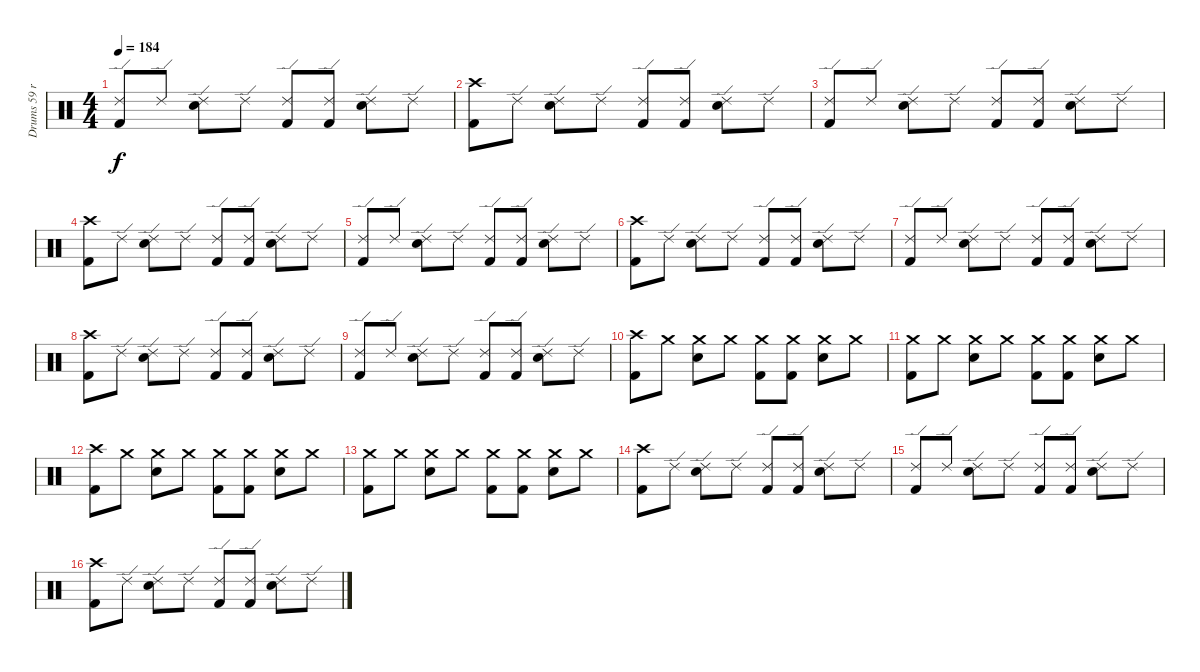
\track ("Drums 59 ride" "Drums 59 r") {mute instrument percussion}
\staff {score}
\articulation defaults
\ts (4 4)
\tempo 184
\clef neutral
\ks c
("Ride (edge) 2" "Kick (hit) 2").8{dy f} "Ride (edge) 2".8 ("Ride (edge) 2" "Snare (hit) 2").8 "Ride (edge) 2".8 ("Ride (edge) 2" "Kick (hit) 2").8 ("Ride (edge) 2" "Kick (hit) 2").8 ("Ride (edge) 2" "Snare (hit) 2").8 "Ride (edge) 2".8 |
("Crash high (hit)" "Kick (hit) 2").8 "Ride (edge) 2".8 ("Ride (edge) 2" "Snare (hit) 2").8 "Ride (edge) 2".8 ("Ride (edge) 2" "Kick (hit) 2").8 ("Ride (edge) 2" "Kick (hit) 2").8 ("Ride (edge) 2" "Snare (hit) 2").8 "Ride (edge) 2".8 |
("Ride (edge) 2" "Kick (hit) 2").8 "Ride (edge) 2".8 ("Ride (edge) 2" "Snare (hit) 2").8 "Ride (edge) 2".8 ("Ride (edge) 2" "Kick (hit) 2").8 ("Ride (edge) 2" "Kick (hit) 2").8 ("Ride (edge) 2" "Snare (hit) 2").8 "Ride (edge) 2".8 |
("Crash high (hit)" "Kick (hit) 2").8 "Ride (edge) 2".8 ("Ride (edge) 2" "Snare (hit) 2").8 "Ride (edge) 2".8 ("Ride (edge) 2" "Kick (hit) 2").8 ("Ride (edge) 2" "Kick (hit) 2").8 ("Ride (edge) 2" "Snare (hit) 2").8 "Ride (edge) 2".8 |
("Ride (edge) 2" "Kick (hit) 2").8 "Ride (edge) 2".8 ("Ride (edge) 2" "Snare (hit) 2").8 "Ride (edge) 2".8 ("Ride (edge) 2" "Kick (hit) 2").8 ("Ride (edge) 2" "Kick (hit) 2").8 ("Ride (edge) 2" "Snare (hit) 2").8 "Ride (edge) 2".8 |
("Crash high (hit)" "Kick (hit) 2").8 "Ride (edge) 2".8 ("Ride (edge) 2" "Snare (hit) 2").8 "Ride (edge) 2".8 ("Ride (edge) 2" "Kick (hit) 2").8 ("Ride (edge) 2" "Kick (hit) 2").8 ("Ride (edge) 2" "Snare (hit) 2").8 "Ride (edge) 2".8 |
("Ride (edge) 2" "Kick (hit) 2").8 "Ride (edge) 2".8 ("Ride (edge) 2" "Snare (hit) 2").8 "Ride (edge) 2".8 ("Ride (edge) 2" "Kick (hit) 2").8 ("Ride (edge) 2" "Kick (hit) 2").8 ("Ride (edge) 2" "Snare (hit) 2").8 "Ride (edge) 2".8 |
("Crash high (hit)" "Kick (hit) 2").8 "Ride (edge) 2".8 ("Ride (edge) 2" "Snare (hit) 2").8 "Ride (edge) 2".8 ("Ride (edge) 2" "Kick (hit) 2").8 ("Ride (edge) 2" "Kick (hit) 2").8 ("Ride (edge) 2" "Snare (hit) 2").8 "Ride (edge) 2".8 |
("Ride (edge) 2" "Kick (hit) 2").8 "Ride (edge) 2".8 ("Ride (edge) 2" "Snare (hit) 2").8 "Ride (edge) 2".8 ("Ride (edge) 2" "Kick (hit) 2").8 ("Ride (edge) 2" "Kick (hit) 2").8 ("Ride (edge) 2" "Snare (hit) 2").8 "Ride (edge) 2".8 |
("Crash high (hit)" "Kick (hit) 2").8 "Crash medium (hit)".8 ("Crash medium (hit)" "Snare (hit) 2").8 "Crash medium (hit)".8 ("Crash medium (hit)" "Kick (hit) 2").8 ("Crash medium (hit)" "Kick (hit) 2").8 ("Crash medium (hit)" "Snare (hit) 2").8 "Crash medium (hit)".8 |
("Crash medium (hit)" "Kick (hit) 2").8 "Crash medium (hit)".8 ("Crash medium (hit)" "Snare (hit) 2").8 "Crash medium (hit)".8 ("Crash medium (hit)" "Kick (hit) 2").8 ("Crash medium (hit)" "Kick (hit) 2").8 ("Crash medium (hit)" "Snare (hit) 2").8 "Crash medium (hit)".8 |
("Crash high (hit)" "Kick (hit) 2").8 "Crash medium (hit)".8 ("Crash medium (hit)" "Snare (hit) 2").8 "Crash medium (hit)".8 ("Crash medium (hit)" "Kick (hit) 2").8 ("Crash medium (hit)" "Kick (hit) 2").8 ("Crash medium (hit)" "Snare (hit) 2").8 "Crash medium (hit)".8 |
("Crash medium (hit)" "Kick (hit) 2").8 "Crash medium (hit)".8 ("Crash medium (hit)" "Snare (hit) 2").8 "Crash medium (hit)".8 ("Crash medium (hit)" "Kick (hit) 2").8 ("Crash medium (hit)" "Kick (hit) 2").8 ("Crash medium (hit)" "Snare (hit) 2").8 "Crash medium (hit)".8 |
("Crash high (hit)" "Kick (hit) 2").8 "Ride (edge) 2".8 ("Ride (edge) 2" "Snare (hit) 2").8 "Ride (edge) 2".8 ("Ride (edge) 2" "Kick (hit) 2").8 ("Ride (edge) 2" "Kick (hit) 2").8 ("Ride (edge) 2" "Snare (hit) 2").8 "Ride (edge) 2".8 |
("Ride (edge) 2" "Kick (hit) 2").8 "Ride (edge) 2".8 ("Ride (edge) 2" "Snare (hit) 2").8 "Ride (edge) 2".8 ("Ride (edge) 2" "Kick (hit) 2").8 ("Ride (edge) 2" "Kick (hit) 2").8 ("Ride (edge) 2" "Snare (hit) 2").8 "Ride (edge) 2".8 |
("Crash high (hit)" "Kick (hit) 2").8 "Ride (edge) 2".8 ("Ride (edge) 2" "Snare (hit) 2").8 "Ride (edge) 2".8 ("Ride (edge) 2" "Kick (hit) 2").8 ("Ride (edge) 2" "Kick (hit) 2").8 ("Ride (edge) 2" "Snare (hit) 2").8 "Ride (edge) 2".8
